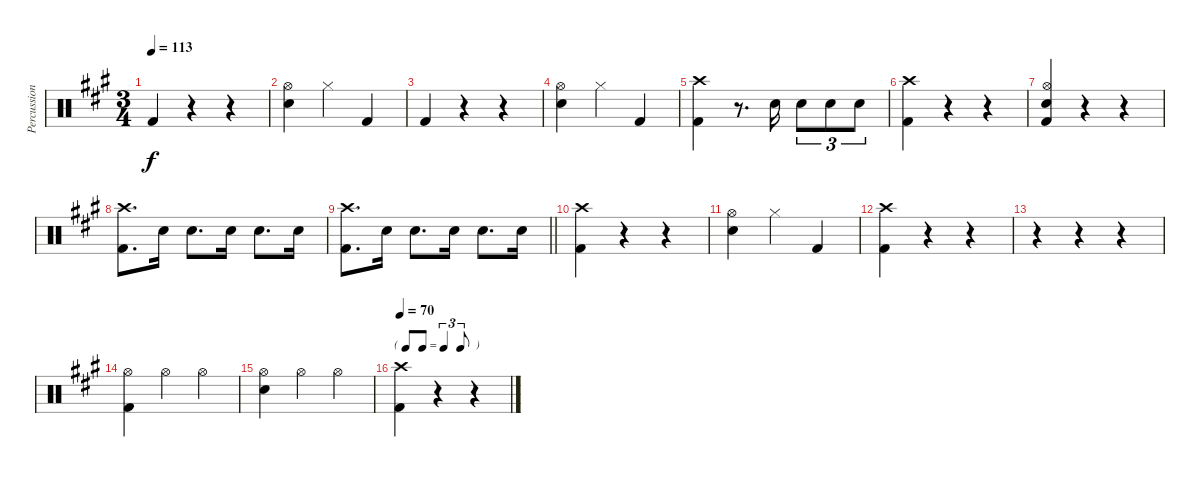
\track ("Percussion" "Percussion") {instrument percussion}
\staff {score}
\articulation defaults
\ts (3 4)
\tempo 113
\clef neutral
\ks a "Kick (hit) 2".4{dy f}
r.4 r.4 |
("Hi-Hat (open)" "Snare (hit) 2").4 "Hi-Hat (closed)".4 "Kick (hit) 2".4 |
"Kick (hit) 2".4 r.4 r.4 |
("Hi-Hat (open)" "Snare (hit) 2").4 "Hi-Hat (closed)".4 "Kick (hit) 2".4 |
("Crash high (hit)" "Kick (hit) 2").4 r.8{d} "Snare (hit) 2".16 "Snare (hit) 2".8{tu (3 2)} "Snare (hit) 2".8{tu (3 2)} "Snare (hit) 2".8{tu (3 2)} |
("Crash high (hit)" "Kick (hit) 2").4 r.4 r.4 |
("Hi-Hat (open)" "Snare (hit) 2" "Kick (hit) 2").4 r.4 r.4 |
("Crash high (hit)" "Kick (hit) 2").8{d} "Snare (hit) 2".16 "Snare (hit) 2".8{d} "Snare (hit) 2".16 "Snare (hit) 2".8{d} "Snare (hit) 2".16 |
\barLineRight lightlight
("Crash high (hit)" "Kick (hit) 2").8{d} "Snare (hit) 2".16 "Snare (hit) 2".8{d} "Snare (hit) 2".16 "Snare (hit) 2".8{d} "Snare (hit) 2".16 |
("Kick (hit) 2" "Crash high (hit)").4 r.4 r.4 |
("Hi-Hat (open)" "Snare (hit) 2").4 "Hi-Hat (closed)".4 "Kick (hit) 2".4 |
("Kick (hit) 2" "Crash high (hit)").4 r.4 r.4 |
r.4 r.4 r.4 |
("Hi-Hat (open)" "Kick (hit) 2").4 "Hi-Hat (open)".4 "Hi-Hat (open)".4 |
("Hi-Hat (open)" "Snare (hit) 2").4 "Hi-Hat (open)".4 "Hi-Hat (open)".4 |
\tf triplet8th
\tempo 70
("Crash high (hit)" "Kick (hit) 2").4 r.4 r.4
